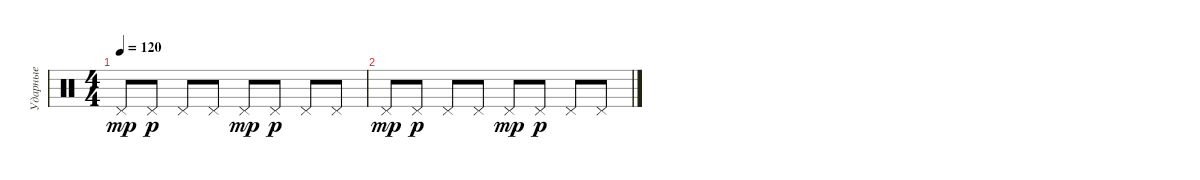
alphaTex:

\track ("Ударные" "Ударные") {instrument percussion}
\staff {score}
\articulation defaults
\ts (4 4)
\tempo 120
\clef neutral
\ks c "Pedal Hi-Hat (hit)".8{dy mp} "Pedal Hi-Hat (hit)".8{dy p} "Pedal Hi-Hat (hit)".8 "Pedal Hi-Hat (hit)".8 "Pedal Hi-Hat (hit)".8{dy mp} "Pedal Hi-Hat (hit)".8{dy p} "Pedal Hi-Hat (hit)".8 "Pedal Hi-Hat (hit)".8
|
"Pedal Hi-Hat (hit)".8{dy mp} "Pedal Hi-Hat (hit)".8{dy p} "Pedal Hi-Hat (hit)".8 "Pedal Hi-Hat (hit)".8 "Pedal Hi-Hat (hit)".8{dy mp} "Pedal Hi-Hat (hit)".8{dy p} "Pedal Hi-Hat (hit)".8 "Pedal Hi-Hat (hit)".8
